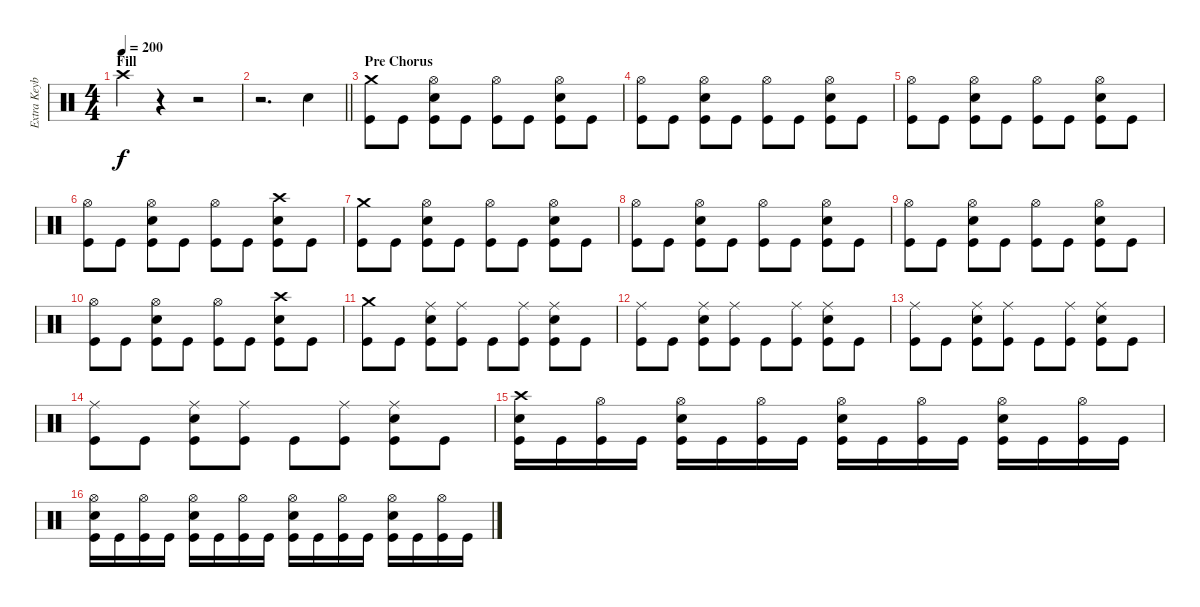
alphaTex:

\track ("Extra Keyboard" "Extra Keyb") {instrument percussion}
\staff {score}
\articulation defaults
\ts (4 4)
\section ("" "Fill")
\tempo 200
\clef neutral
\ks c "Crash high (hit)".4{dy f}
r.4 r.2 |
\barLineRight lightlight
r.2{d} "Electric Snare (hit)".4 |
\section ("" "Pre Chorus")
("Crash medium (hit)" "Kick (hit)").8 "Kick (hit)".8 ("Hi-Hat (open)" "Electric Snare (hit)" "Kick (hit)").8 "Kick (hit)".8 ("Hi-Hat (open)" "Kick (hit)").8 "Kick (hit)".8 ("Hi-Hat (open)" "Electric Snare (hit)" "Kick (hit)").8 "Kick (hit)".8 |
("Hi-Hat (open)" "Kick (hit)").8 "Kick (hit)".8 ("Hi-Hat (open)" "Electric Snare (hit)" "Kick (hit)").8 "Kick (hit)".8 ("Hi-Hat (open)" "Kick (hit)").8 "Kick (hit)".8 ("Hi-Hat (open)" "Electric Snare (hit)" "Kick (hit)").8 "Kick (hit)".8 |
("Hi-Hat (open)" "Kick (hit)").8 "Kick (hit)".8 ("Hi-Hat (open)" "Electric Snare (hit)" "Kick (hit)").8 "Kick (hit)".8 ("Hi-Hat (open)" "Kick (hit)").8 "Kick (hit)".8 ("Hi-Hat (open)" "Electric Snare (hit)" "Kick (hit)").8 "Kick (hit)".8 |
("Hi-Hat (open)" "Kick (hit)").8 "Kick (hit)".8 ("Hi-Hat (open)" "Electric Snare (hit)" "Kick (hit)").8 "Kick (hit)".8 ("Hi-Hat (open)" "Kick (hit)").8 "Kick (hit)".8 ("Crash high (hit)" "Electric Snare (hit)" "Kick (hit)").8 "Kick (hit)".8 |
("Crash medium (hit)" "Kick (hit)").8 "Kick (hit)".8 ("Hi-Hat (open)" "Electric Snare (hit)" "Kick (hit)").8 "Kick (hit)".8 ("Hi-Hat (open)" "Kick (hit)").8 "Kick (hit)".8 ("Hi-Hat (open)" "Electric Snare (hit)" "Kick (hit)").8 "Kick (hit)".8 |
("Hi-Hat (open)" "Kick (hit)").8 "Kick (hit)".8 ("Hi-Hat (open)" "Electric Snare (hit)" "Kick (hit)").8 "Kick (hit)".8 ("Hi-Hat (open)" "Kick (hit)").8 "Kick (hit)".8 ("Hi-Hat (open)" "Electric Snare (hit)" "Kick (hit)").8 "Kick (hit)".8 |
("Hi-Hat (open)" "Kick (hit)").8 "Kick (hit)".8 ("Hi-Hat (open)" "Electric Snare (hit)" "Kick (hit)").8 "Kick (hit)".8 ("Hi-Hat (open)" "Kick (hit)").8 "Kick (hit)".8 ("Hi-Hat (open)" "Electric Snare (hit)" "Kick (hit)").8 "Kick (hit)".8 |
("Hi-Hat (open)" "Kick (hit)").8 "Kick (hit)".8 ("Hi-Hat (open)" "Electric Snare (hit)" "Kick (hit)").8 "Kick (hit)".8 ("Hi-Hat (open)" "Kick (hit)").8 "Kick (hit)".8 ("Crash high (hit)" "Electric Snare (hit)" "Kick (hit)").8 "Kick (hit)".8 |
("Crash medium (hit)" "Kick (hit)").8 "Kick (hit)".8 ("Ride (middle)" "Electric Snare (hit)" "Kick (hit)").8 ("Ride (middle)" "Kick (hit)").8 "Kick (hit)".8 ("Ride (middle)" "Kick (hit)").8 ("Ride (middle)" "Electric Snare (hit)" "Kick (hit)").8 "Kick (hit)".8 |
("Ride (middle)" "Kick (hit)").8 "Kick (hit)".8 ("Ride (middle)" "Electric Snare (hit)" "Kick (hit)").8 ("Ride (middle)" "Kick (hit)").8 "Kick (hit)".8 ("Ride (middle)" "Kick (hit)").8 ("Ride (middle)" "Electric Snare (hit)" "Kick (hit)").8 "Kick (hit)".8 |
("Ride (middle)" "Kick (hit)").8 "Kick (hit)".8 ("Ride (middle)" "Electric Snare (hit)" "Kick (hit)").8 ("Ride (middle)" "Kick (hit)").8 "Kick (hit)".8 ("Ride (middle)" "Kick (hit)").8 ("Ride (middle)" "Electric Snare (hit)" "Kick (hit)").8 "Kick (hit)".8 |
("Ride (middle)" "Kick (hit)").8 "Kick (hit)".8 ("Ride (middle)" "Electric Snare (hit)" "Kick (hit)").8 ("Ride (middle)" "Kick (hit)").8 "Kick (hit)".8 ("Ride (middle)" "Kick (hit)").8 ("Ride (middle)" "Electric Snare (hit)" "Kick (hit)").8 "Kick (hit)".8 |
("Crash high (hit)" "Electric Snare (hit)" "Kick (hit)").16 "Kick (hit)".16 ("Hi-Hat (open)" "Kick (hit)").16 "Kick (hit)".16 ("Hi-Hat (open)" "Electric Snare (hit)" "Kick (hit)").16 "Kick (hit)".16 ("Hi-Hat (open)" "Kick (hit)").16 "Kick (hit)".16 ("Hi-Hat (open)" "Electric Snare (hit)" "Kick (hit)").16 "Kick (hit)".16 ("Hi-Hat (open)" "Kick (hit)").16 "Kick (hit)".16 ("Hi-Hat (open)" "Electric Snare (hit)" "Kick (hit)").16 "Kick (hit)".16 ("Hi-Hat (open)" "Kick (hit)").16 "Kick (hit)".16 |
("Hi-Hat (open)" "Electric Snare (hit)" "Kick (hit)").16 "Kick (hit)".16 ("Hi-Hat (open)" "Kick (hit)").16 "Kick (hit)".16 ("Hi-Hat (open)" "Electric Snare (hit)" "Kick (hit)").16 "Kick (hit)".16 ("Hi-Hat (open)" "Kick (hit)").16 "Kick (hit)".16 ("Hi-Hat (open)" "Electric Snare (hit)" "Kick (hit)").16 "Kick (hit)".16 ("Hi-Hat (open)" "Kick (hit)").16 "Kick (hit)".16 ("Hi-Hat (open)" "Electric Snare (hit)" "Kick (hit)").16 "Kick (hit)".16 ("Hi-Hat (open)" "Kick (hit)").16 "Kick (hit)".16
